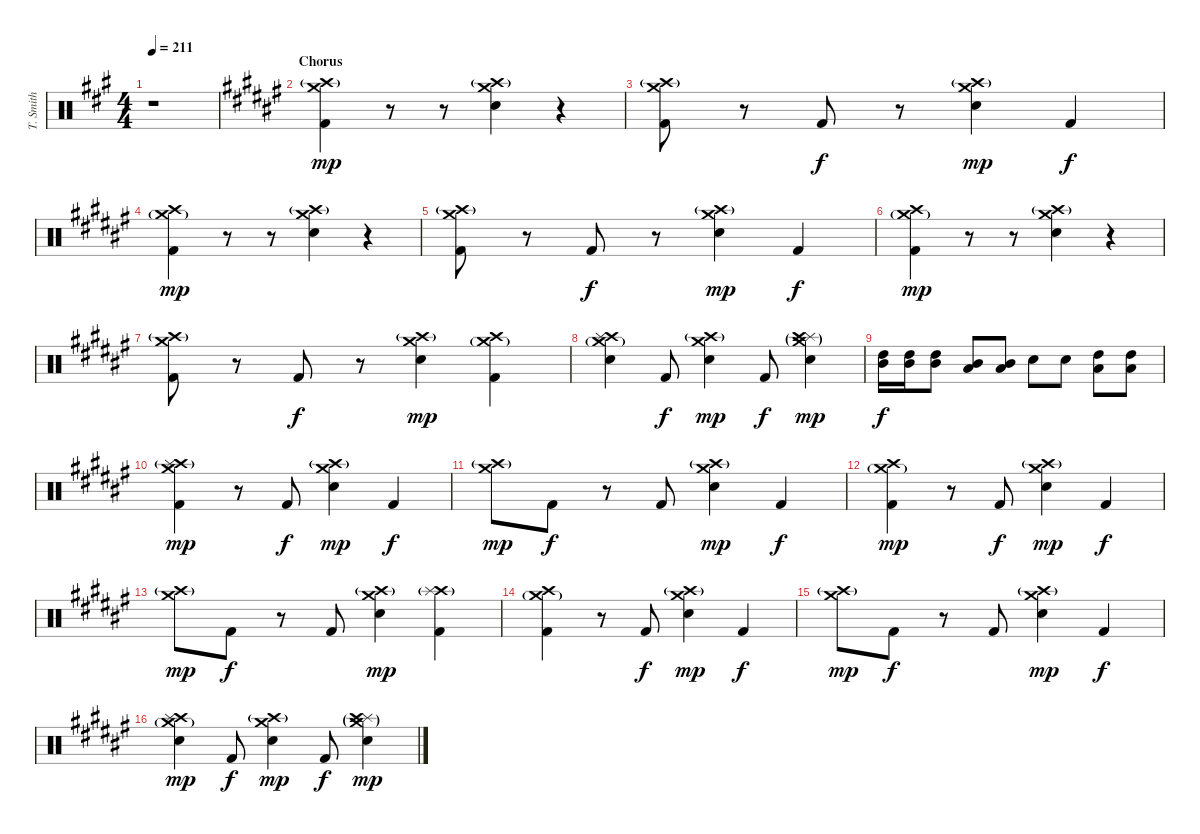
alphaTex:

\track ("T. Smith" "T. Smith") {instrument percussion}
\staff {score}
\articulation defaults
\ts (4 4)
\tempo 211
\clef neutral
\ks f#minor
r.1{dy mp} |
\section ("" "Chorus")
\ks d#minor
("Crash medium (hit)" "Crash high (hit)"{g} "Kick (hit) 2").4{volume 13 balance 8} r.8 r.8 ("Crash medium (hit)" "Crash high (hit)"{g} "Electric Snare (hit)").4 r.4 |
("Crash medium (hit)" "Crash high (hit)"{g} "Kick (hit) 2").8 r.8 "Kick (hit) 2".8{dy f} r.8 ("Crash medium (hit)" "Crash high (hit)"{g} "Electric Snare (hit)").4{dy mp} "Kick (hit) 2".4{dy f} |
("Crash medium (hit)"{g} "Crash high (hit)" "Kick (hit) 2").4{dy mp} r.8 r.8 ("Crash medium (hit)" "Crash high (hit)"{g} "Electric Snare (hit)").4 r.4 |
("Crash medium (hit)" "Crash high (hit)"{g} "Kick (hit) 2").8 r.8 "Kick (hit) 2".8{dy f} r.8 ("Crash medium (hit)" "Crash high (hit)"{g} "Electric Snare (hit)").4{dy mp} "Kick (hit) 2".4{dy f} |
("Crash medium (hit)"{g} "Crash high (hit)" "Kick (hit) 2").4{dy mp} r.8 r.8 ("Crash medium (hit)" "Crash high (hit)"{g} "Electric Snare (hit)").4 r.4 |
("Crash medium (hit)" "Crash high (hit)"{g} "Kick (hit) 2").8 r.8 "Kick (hit) 2".8{dy f} r.8 ("Crash medium (hit)" "Crash high (hit)"{g} "Electric Snare (hit)").4{dy mp} ("Crash medium (hit)"{g} "Crash high (hit)" "Kick (hit) 2").4 |
("Crash medium (hit)"{g} "Crash high (hit)" "Splash (hit)" "Electric Snare (hit)").4 "Kick (hit) 2".8{dy f} ("Crash medium (hit)" "Crash high (hit)"{g} "Electric Snare (hit)").4{dy mp} "Kick (hit) 2".8{dy f} ("Splash (hit)" "Crash high (hit)"{g} "Crash medium (hit)"{g} "Electric Snare (hit)").4{dy mp} |
("High Tom (hit)" "Mid Tom (hit)").16{dy f} ("High Tom (hit)" "Mid Tom (hit)").16 ("High Tom (hit)" "Mid Tom (hit)").8 ("Low Tom (hit)" "Mid Tom (hit)").8 ("Low Tom (hit)" "Mid Tom (hit)").8 "Electric Snare (hit)".8 "Electric Snare (hit)".8 ("Low Tom (hit)" "High Tom (hit)").8 ("Low Tom (hit)" "High Tom (hit)").8 |
("Crash medium (hit)" "Crash high (hit)"{g} "Splash (hit)" "Kick (hit) 2").4{dy mp} r.8 "Kick (hit) 2".8{dy f} ("Crash medium (hit)" "Crash high (hit)"{g} "Electric Snare (hit)").4{dy mp} "Kick (hit) 2".4{dy f} |
("Crash medium (hit)" "Crash high (hit)"{g}).8{dy mp} "Kick (hit) 2".8{dy f} r.8 "Kick (hit) 2".8 ("Crash medium (hit)" "Crash high (hit)"{g} "Electric Snare (hit)").4{dy mp} "Kick (hit) 2".4{dy f} |
("Crash medium (hit)"{g} "Crash high (hit)" "Kick (hit) 2").4{dy mp} r.8 "Kick (hit) 2".8{dy f} ("Crash medium (hit)" "Crash high (hit)"{g} "Electric Snare (hit)").4{dy mp} "Kick (hit) 2".4{dy f} |
("Crash medium (hit)" "Crash high (hit)"{g}).8{dy mp} "Kick (hit) 2".8{dy f} r.8 "Kick (hit) 2".8 ("Crash medium (hit)" "Crash high (hit)"{g} "Electric Snare (hit)").4{dy mp} ("Crash high (hit)"{g} "Splash (hit)" "Kick (hit) 2").4 |
("Crash medium (hit)"{g} "Crash high (hit)" "Kick (hit) 2").4 r.8 "Kick (hit) 2".8{dy f} ("Crash medium (hit)" "Crash high (hit)"{g} "Electric Snare (hit)").4{dy mp} "Kick (hit) 2".4{dy f} |
("Crash medium (hit)" "Crash high (hit)"{g}).8{dy mp} "Kick (hit) 2".8{dy f} r.8 "Kick (hit) 2".8 ("Crash medium (hit)" "Crash high (hit)"{g} "Electric Snare (hit)").4{dy mp} "Kick (hit) 2".4{dy f} |
("Crash medium (hit)"{g} "Crash high (hit)" "Splash (hit)" "Electric Snare (hit)").4{dy mp} "Kick (hit) 2".8{dy f} ("Crash medium (hit)" "Crash high (hit)"{g} "Electric Snare (hit)").4{dy mp} "Kick (hit) 2".8{dy f} ("Splash (hit)" "Crash high (hit)"{g} "Crash medium (hit)"{g} "Electric Snare (hit)").4{dy mp}
